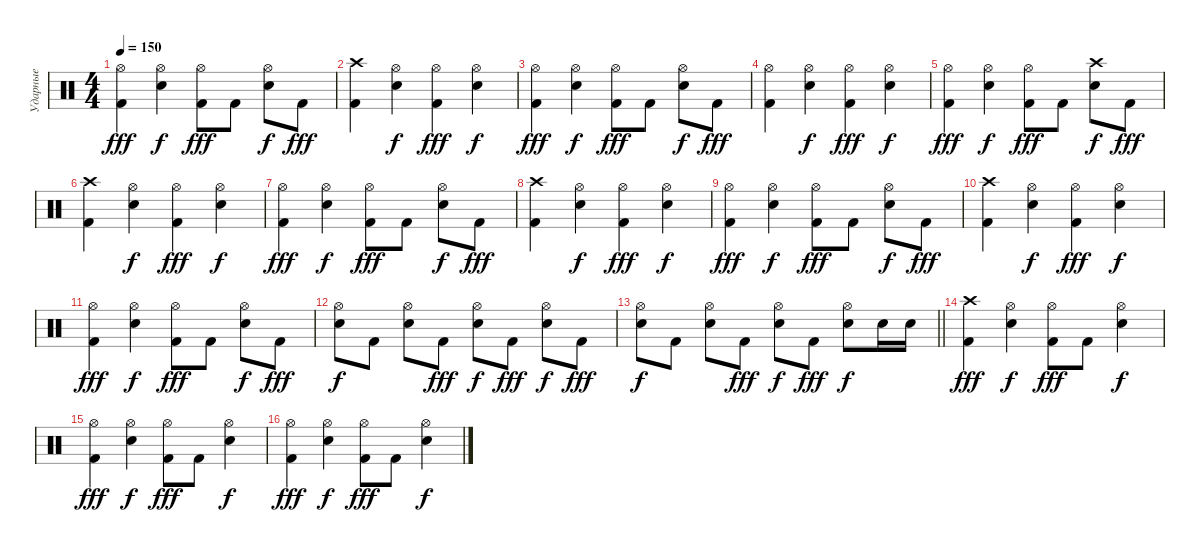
\track ("Ударные" "Ударные") {instrument percussion}
\staff {score}
\articulation defaults
\ts (4 4)
\tempo 150
\clef neutral
\ks c
("Kick (hit) 2" "Hi-Hat (open)").4{dy fff} ("Snare (hit) 2" "Hi-Hat (open)").4{dy f} ("Kick (hit) 2" "Hi-Hat (open)").8{dy fff} "Kick (hit) 2".8 ("Snare (hit) 2" "Hi-Hat (open)").8{dy f} "Kick (hit) 2".8{dy fff} |
("Kick (hit) 2" "Crash high (hit)").4 ("Snare (hit) 2" "Hi-Hat (open)").4{dy f} ("Kick (hit) 2" "Hi-Hat (open)").4{dy fff} ("Snare (hit) 2" "Hi-Hat (open)").4{dy f} |
("Kick (hit) 2" "Hi-Hat (open)").4{dy fff} ("Snare (hit) 2" "Hi-Hat (open)").4{dy f} ("Kick (hit) 2" "Hi-Hat (open)").8{dy fff} "Kick (hit) 2".8 ("Snare (hit) 2" "Hi-Hat (open)").8{dy f} "Kick (hit) 2".8{dy fff} |
("Kick (hit) 2" "Hi-Hat (open)").4 ("Snare (hit) 2" "Hi-Hat (open)").4{dy f} ("Kick (hit) 2" "Hi-Hat (open)").4{dy fff} ("Snare (hit) 2" "Hi-Hat (open)").4{dy f} |
("Kick (hit) 2" "Hi-Hat (open)").4{dy fff} ("Snare (hit) 2" "Hi-Hat (open)").4{dy f} ("Kick (hit) 2" "Hi-Hat (open)").8{dy fff} "Kick (hit) 2".8 ("Snare (hit) 2" "Crash high (hit)").8{dy f} "Kick (hit) 2".8{dy fff} |
("Kick (hit) 2" "Crash high (hit)").4 ("Snare (hit) 2" "Hi-Hat (open)").4{dy f} ("Kick (hit) 2" "Hi-Hat (open)").4{dy fff} ("Snare (hit) 2" "Hi-Hat (open)").4{dy f} |
("Kick (hit) 2" "Hi-Hat (open)").4{dy fff} ("Snare (hit) 2" "Hi-Hat (open)").4{dy f} ("Kick (hit) 2" "Hi-Hat (open)").8{dy fff} "Kick (hit) 2".8 ("Snare (hit) 2" "Hi-Hat (open)").8{dy f} "Kick (hit) 2".8{dy fff} |
("Kick (hit) 2" "Crash high (hit)").4 ("Snare (hit) 2" "Hi-Hat (open)").4{dy f} ("Kick (hit) 2" "Hi-Hat (open)").4{dy fff} ("Snare (hit) 2" "Hi-Hat (open)").4{dy f} |
("Kick (hit) 2" "Hi-Hat (open)").4{dy fff} ("Snare (hit) 2" "Hi-Hat (open)").4{dy f} ("Kick (hit) 2" "Hi-Hat (open)").8{dy fff} "Kick (hit) 2".8 ("Snare (hit) 2" "Hi-Hat (open)").8{dy f} "Kick (hit) 2".8{dy fff} |
("Kick (hit) 2" "Crash high (hit)").4 ("Snare (hit) 2" "Hi-Hat (open)").4{dy f} ("Kick (hit) 2" "Hi-Hat (open)").4{dy fff} ("Snare (hit) 2" "Hi-Hat (open)").4{dy f} |
("Kick (hit) 2" "Hi-Hat (open)").4{dy fff} ("Snare (hit) 2" "Hi-Hat (open)").4{dy f} ("Kick (hit) 2" "Hi-Hat (open)").8{dy fff} "Kick (hit) 2".8 ("Snare (hit) 2" "Hi-Hat (open)").8{dy f} "Kick (hit) 2".8{dy fff} |
("Snare (hit) 2" "Hi-Hat (open)").8{dy f} "Kick (hit) 2".8 ("Snare (hit) 2" "Hi-Hat (open)").8 "Kick (hit) 2".8{dy fff} ("Snare (hit) 2" "Hi-Hat (open)").8{dy f} "Kick (hit) 2".8{dy fff} ("Snare (hit) 2" "Hi-Hat (open)").8{dy f} "Kick (hit) 2".8{dy fff} |
\barLineRight lightlight
("Snare (hit) 2" "Hi-Hat (open)").8{dy f} "Kick (hit) 2".8 ("Snare (hit) 2" "Hi-Hat (open)").8 "Kick (hit) 2".8{dy fff} ("Snare (hit) 2" "Hi-Hat (open)").8{dy f} "Kick (hit) 2".8{dy fff} ("Snare (hit) 2" "Hi-Hat (open)").8{dy f} "Snare (hit) 2".16 "Snare (hit) 2".16 |
("Kick (hit) 2" "Crash high (hit)").4{dy fff} ("Snare (hit) 2" "Hi-Hat (open)").4{dy f} ("Kick (hit) 2" "Hi-Hat (open)").8{dy fff} "Kick (hit) 2".8 ("Snare (hit) 2" "Hi-Hat (open)").4{dy f} |
("Kick (hit) 2" "Hi-Hat (open)").4{dy fff} ("Snare (hit) 2" "Hi-Hat (open)").4{dy f} ("Kick (hit) 2" "Hi-Hat (open)").8{dy fff} "Kick (hit) 2".8 ("Snare (hit) 2" "Hi-Hat (open)").4{dy f} |
("Kick (hit) 2" "Hi-Hat (open)").4{dy fff} ("Snare (hit) 2" "Hi-Hat (open)").4{dy f} ("Kick (hit) 2" "Hi-Hat (open)").8{dy fff} "Kick (hit) 2".8 ("Snare (hit) 2" "Hi-Hat (open)").4{dy f}
